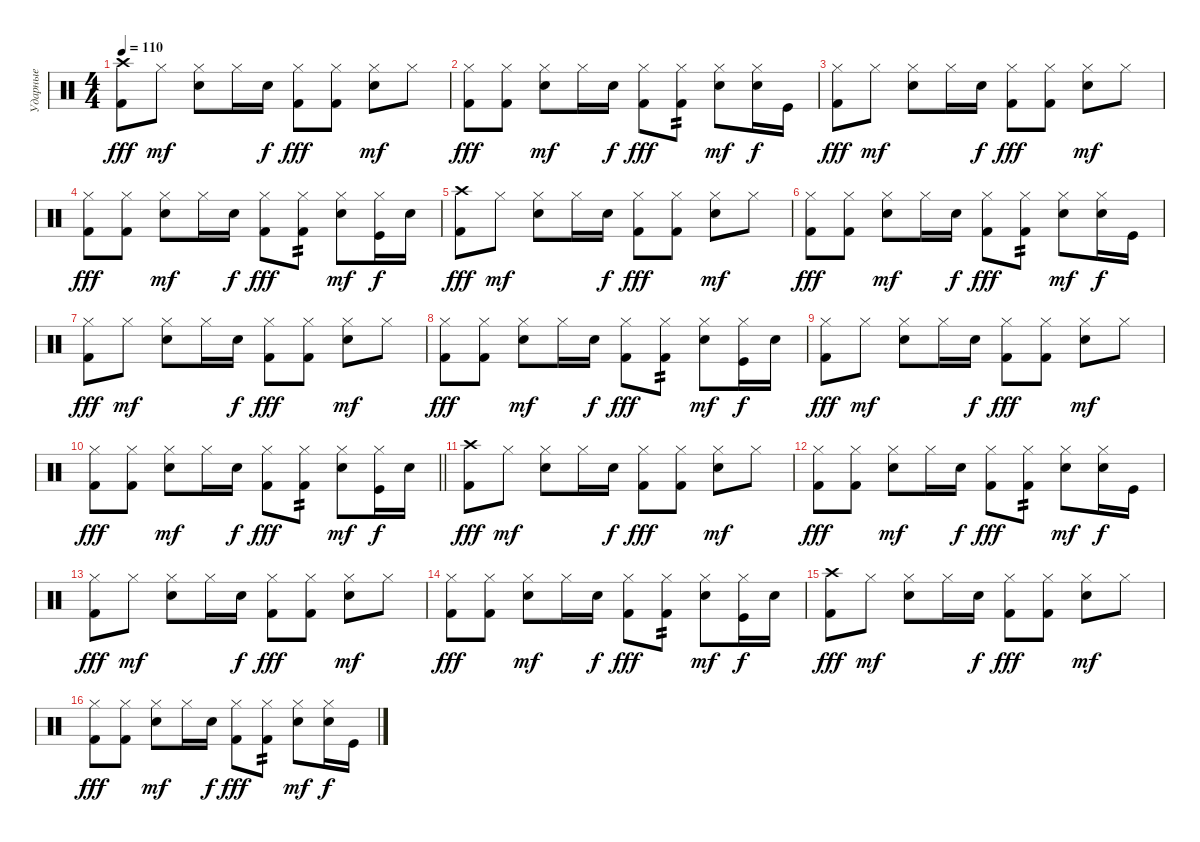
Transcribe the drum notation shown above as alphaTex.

\track ("Ударные" "Ударные") {instrument percussion}
\staff {score}
\articulation defaults
\ts (4 4)
\tempo 110
\clef neutral
\ks c
("Crash high (hit)" "Kick (hit) 2").8{dy fff} "Hi-Hat (closed)".8{dy mf} ("Hi-Hat (closed)" "Snare (hit) 2").8 "Hi-Hat (closed)".16 "Snare (hit) 2".16{dy f} ("Hi-Hat (closed)" "Kick (hit) 2").8{dy fff} ("Hi-Hat (closed)" "Kick (hit) 2").8 ("Hi-Hat (closed)" "Snare (hit) 2").8{dy mf} "Hi-Hat (closed)".8 |
("Hi-Hat (closed)" "Kick (hit) 2").8{dy fff} ("Hi-Hat (closed)" "Kick (hit) 2").8 ("Hi-Hat (closed)" "Snare (hit) 2").8{dy mf} "Hi-Hat (closed)".16 "Snare (hit) 2".16{dy f} ("Hi-Hat (closed)" "Kick (hit) 2").8{dy fff} ("Hi-Hat (closed)" "Kick (hit) 2").8{tp 2} ("Hi-Hat (closed)" "Snare (hit) 2").8{dy mf} ("Snare (hit) 2" "Hi-Hat (closed)").16{dy f} "Kick (hit)".16 |
("Hi-Hat (closed)" "Kick (hit) 2").8{dy fff} "Hi-Hat (closed)".8{dy mf} ("Hi-Hat (closed)" "Snare (hit) 2").8 "Hi-Hat (closed)".16 "Snare (hit) 2".16{dy f} ("Hi-Hat (closed)" "Kick (hit) 2").8{dy fff} ("Hi-Hat (closed)" "Kick (hit) 2").8 ("Hi-Hat (closed)" "Snare (hit) 2").8{dy mf} "Hi-Hat (closed)".8 |
("Hi-Hat (closed)" "Kick (hit) 2").8{dy fff} ("Hi-Hat (closed)" "Kick (hit) 2").8 ("Hi-Hat (closed)" "Snare (hit) 2").8{dy mf} "Hi-Hat (closed)".16 "Snare (hit) 2".16{dy f} ("Hi-Hat (closed)" "Kick (hit) 2").8{dy fff} ("Hi-Hat (closed)" "Kick (hit) 2").8{tp 2} ("Hi-Hat (closed)" "Snare (hit) 2").8{dy mf} ("Kick (hit)" "Hi-Hat (closed)").16{dy f} "Snare (hit) 2".16 |
("Crash high (hit)" "Kick (hit) 2").8{dy fff} "Hi-Hat (closed)".8{dy mf} ("Hi-Hat (closed)" "Snare (hit) 2").8 "Hi-Hat (closed)".16 "Snare (hit) 2".16{dy f} ("Hi-Hat (closed)" "Kick (hit) 2").8{dy fff} ("Hi-Hat (closed)" "Kick (hit) 2").8 ("Hi-Hat (closed)" "Snare (hit) 2").8{dy mf} "Hi-Hat (closed)".8 |
("Hi-Hat (closed)" "Kick (hit) 2").8{dy fff} ("Hi-Hat (closed)" "Kick (hit) 2").8 ("Hi-Hat (closed)" "Snare (hit) 2").8{dy mf} "Hi-Hat (closed)".16 "Snare (hit) 2".16{dy f} ("Hi-Hat (closed)" "Kick (hit) 2").8{dy fff} ("Hi-Hat (closed)" "Kick (hit) 2").8{tp 2} ("Hi-Hat (closed)" "Snare (hit) 2").8{dy mf} ("Snare (hit) 2" "Hi-Hat (closed)").16{dy f} "Kick (hit)".16 |
("Hi-Hat (closed)" "Kick (hit) 2").8{dy fff} "Hi-Hat (closed)".8{dy mf} ("Hi-Hat (closed)" "Snare (hit) 2").8 "Hi-Hat (closed)".16 "Snare (hit) 2".16{dy f} ("Hi-Hat (closed)" "Kick (hit) 2").8{dy fff} ("Hi-Hat (closed)" "Kick (hit) 2").8 ("Hi-Hat (closed)" "Snare (hit) 2").8{dy mf} "Hi-Hat (closed)".8 |
("Hi-Hat (closed)" "Kick (hit) 2").8{dy fff} ("Hi-Hat (closed)" "Kick (hit) 2").8 ("Hi-Hat (closed)" "Snare (hit) 2").8{dy mf} "Hi-Hat (closed)".16 "Snare (hit) 2".16{dy f} ("Hi-Hat (closed)" "Kick (hit) 2").8{dy fff} ("Hi-Hat (closed)" "Kick (hit) 2").8{tp 2} ("Hi-Hat (closed)" "Snare (hit) 2").8{dy mf} ("Kick (hit)" "Hi-Hat (closed)").16{dy f} "Snare (hit) 2".16 |
("Hi-Hat (closed)" "Kick (hit) 2").8{dy fff} "Hi-Hat (closed)".8{dy mf} ("Hi-Hat (closed)" "Snare (hit) 2").8 "Hi-Hat (closed)".16 "Snare (hit) 2".16{dy f} ("Hi-Hat (closed)" "Kick (hit) 2").8{dy fff} ("Hi-Hat (closed)" "Kick (hit) 2").8 ("Hi-Hat (closed)" "Snare (hit) 2").8{dy mf} "Hi-Hat (closed)".8 |
\barLineRight lightlight
("Hi-Hat (closed)" "Kick (hit) 2").8{dy fff} ("Hi-Hat (closed)" "Kick (hit) 2").8 ("Hi-Hat (closed)" "Snare (hit) 2").8{dy mf} "Hi-Hat (closed)".16 "Snare (hit) 2".16{dy f} ("Hi-Hat (closed)" "Kick (hit) 2").8{dy fff} ("Hi-Hat (closed)" "Kick (hit) 2").8{tp 2} ("Hi-Hat (closed)" "Snare (hit) 2").8{dy mf} ("Kick (hit)" "Hi-Hat (closed)").16{dy f} "Snare (hit) 2".16 |
("Crash high (hit)" "Kick (hit) 2").8{dy fff} "Hi-Hat (closed)".8{dy mf} ("Hi-Hat (closed)" "Snare (hit) 2").8 "Hi-Hat (closed)".16 "Snare (hit) 2".16{dy f} ("Hi-Hat (closed)" "Kick (hit) 2").8{dy fff} ("Hi-Hat (closed)" "Kick (hit) 2").8 ("Hi-Hat (closed)" "Snare (hit) 2").8{dy mf} "Hi-Hat (closed)".8 |
("Hi-Hat (closed)" "Kick (hit) 2").8{dy fff} ("Hi-Hat (closed)" "Kick (hit) 2").8 ("Hi-Hat (closed)" "Snare (hit) 2").8{dy mf} "Hi-Hat (closed)".16 "Snare (hit) 2".16{dy f} ("Hi-Hat (closed)" "Kick (hit) 2").8{dy fff} ("Hi-Hat (closed)" "Kick (hit) 2").8{tp 2} ("Hi-Hat (closed)" "Snare (hit) 2").8{dy mf} ("Snare (hit) 2" "Hi-Hat (closed)").16{dy f} "Kick (hit)".16 |
("Hi-Hat (closed)" "Kick (hit) 2").8{dy fff} "Hi-Hat (closed)".8{dy mf} ("Hi-Hat (closed)" "Snare (hit) 2").8 "Hi-Hat (closed)".16 "Snare (hit) 2".16{dy f} ("Hi-Hat (closed)" "Kick (hit) 2").8{dy fff} ("Hi-Hat (closed)" "Kick (hit) 2").8 ("Hi-Hat (closed)" "Snare (hit) 2").8{dy mf} "Hi-Hat (closed)".8 |
("Hi-Hat (closed)" "Kick (hit) 2").8{dy fff} ("Hi-Hat (closed)" "Kick (hit) 2").8 ("Hi-Hat (closed)" "Snare (hit) 2").8{dy mf} "Hi-Hat (closed)".16 "Snare (hit) 2".16{dy f} ("Hi-Hat (closed)" "Kick (hit) 2").8{dy fff} ("Hi-Hat (closed)" "Kick (hit) 2").8{tp 2} ("Hi-Hat (closed)" "Snare (hit) 2").8{dy mf} ("Kick (hit)" "Hi-Hat (closed)").16{dy f} "Snare (hit) 2".16 |
("Crash high (hit)" "Kick (hit) 2").8{dy fff} "Hi-Hat (closed)".8{dy mf} ("Hi-Hat (closed)" "Snare (hit) 2").8 "Hi-Hat (closed)".16 "Snare (hit) 2".16{dy f} ("Hi-Hat (closed)" "Kick (hit) 2").8{dy fff} ("Hi-Hat (closed)" "Kick (hit) 2").8 ("Hi-Hat (closed)" "Snare (hit) 2").8{dy mf} "Hi-Hat (closed)".8 |
("Hi-Hat (closed)" "Kick (hit) 2").8{dy fff} ("Hi-Hat (closed)" "Kick (hit) 2").8 ("Hi-Hat (closed)" "Snare (hit) 2").8{dy mf} "Hi-Hat (closed)".16 "Snare (hit) 2".16{dy f} ("Hi-Hat (closed)" "Kick (hit) 2").8{dy fff} ("Hi-Hat (closed)" "Kick (hit) 2").8{tp 2} ("Hi-Hat (closed)" "Snare (hit) 2").8{dy mf} ("Snare (hit) 2" "Hi-Hat (closed)").16{dy f} "Kick (hit)".16
